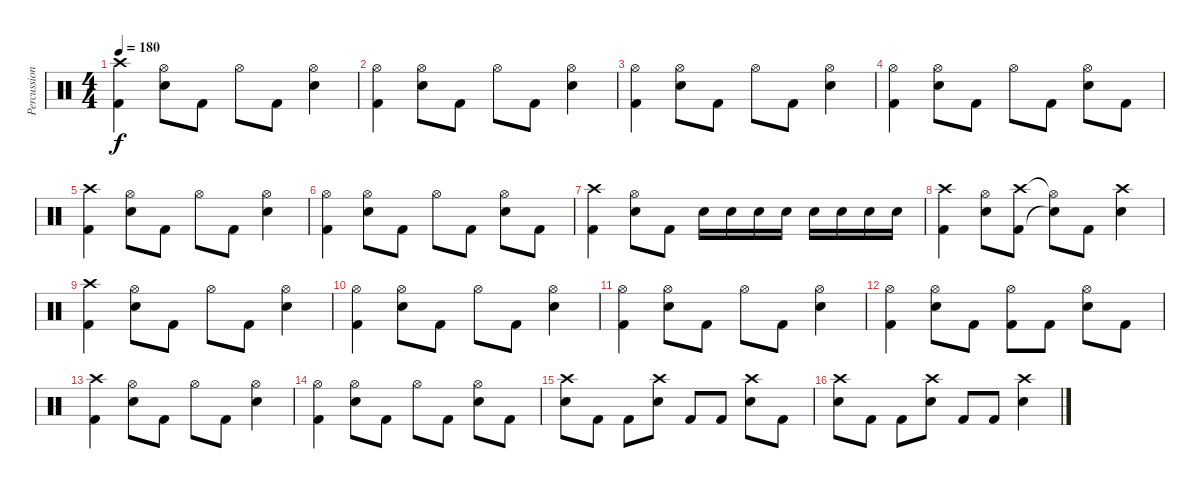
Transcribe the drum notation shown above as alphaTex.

\track ("Percussion" "Percussion") {instrument percussion}
\staff {score}
\articulation defaults
\ts (4 4)
\tempo 180
\clef neutral
\ks c
("Crash high (hit)" "Kick (hit) 2").4{dy f} ("Hi-Hat (open)" "Snare (hit) 2").8 "Kick (hit) 2".8 "Hi-Hat (open)".8 "Kick (hit) 2".8 ("Hi-Hat (open)" "Snare (hit) 2").4 |
("Hi-Hat (open)" "Kick (hit) 2").4 ("Hi-Hat (open)" "Snare (hit) 2").8 "Kick (hit) 2".8 "Hi-Hat (open)".8 "Kick (hit) 2".8 ("Hi-Hat (open)" "Snare (hit) 2").4 |
("Hi-Hat (open)" "Kick (hit) 2").4 ("Hi-Hat (open)" "Snare (hit) 2").8 "Kick (hit) 2".8 "Hi-Hat (open)".8 "Kick (hit) 2".8 ("Hi-Hat (open)" "Snare (hit) 2").4 |
("Hi-Hat (open)" "Kick (hit) 2").4 ("Hi-Hat (open)" "Snare (hit) 2").8 "Kick (hit) 2".8 "Hi-Hat (open)".8 "Kick (hit) 2".8 ("Hi-Hat (open)" "Snare (hit) 2").8 "Kick (hit) 2".8 |
("Crash high (hit)" "Kick (hit) 2").4 ("Hi-Hat (open)" "Snare (hit) 2").8 "Kick (hit) 2".8 "Hi-Hat (open)".8 "Kick (hit) 2".8 ("Hi-Hat (open)" "Snare (hit) 2").4 |
("Hi-Hat (open)" "Kick (hit) 2").4 ("Hi-Hat (open)" "Snare (hit) 2").8 "Kick (hit) 2".8 "Hi-Hat (open)".8 "Kick (hit) 2".8 ("Hi-Hat (open)" "Snare (hit) 2").8 "Kick (hit) 2".8 |
("Crash high (hit)" "Kick (hit) 2").4 ("Hi-Hat (open)" "Snare (hit) 2").8 "Kick (hit) 2".8 "Snare (hit) 2".16 "Snare (hit) 2".16 "Snare (hit) 2".16 "Snare (hit) 2".16 "Snare (hit) 2".16 "Snare (hit) 2".16 "Snare (hit) 2".16 "Snare (hit) 2".16 |
("Crash high (hit)" "Kick (hit) 2").4 ("Hi-Hat (open)" "Snare (hit) 2").8 ("Crash high (hit)" "Kick (hit) 2").8 ("Hi-Hat (open)"{t} "Snare (hit)"{t}).8 "Kick (hit) 2".8 ("Crash high (hit)" "Snare (hit) 2").4 |
("Crash high (hit)" "Kick (hit) 2").4 ("Hi-Hat (open)" "Snare (hit) 2").8 "Kick (hit) 2".8 "Hi-Hat (open)".8 "Kick (hit) 2".8 ("Hi-Hat (open)" "Snare (hit) 2").4 |
("Hi-Hat (open)" "Kick (hit) 2").4 ("Hi-Hat (open)" "Snare (hit) 2").8 "Kick (hit) 2".8 "Hi-Hat (open)".8 "Kick (hit) 2".8 ("Hi-Hat (open)" "Snare (hit) 2").4 |
("Hi-Hat (open)" "Kick (hit) 2").4 ("Hi-Hat (open)" "Snare (hit) 2").8 "Kick (hit) 2".8 "Hi-Hat (open)".8 "Kick (hit) 2".8 ("Hi-Hat (open)" "Snare (hit) 2").4 |
("Hi-Hat (open)" "Kick (hit) 2").4 ("Hi-Hat (open)" "Snare (hit) 2").8 "Kick (hit) 2".8 ("Hi-Hat (open)" "Kick (hit) 2").8 "Kick (hit) 2".8 ("Hi-Hat (open)" "Snare (hit) 2").8 "Kick (hit) 2".8 |
("Crash high (hit)" "Kick (hit) 2").4 ("Hi-Hat (open)" "Snare (hit) 2").8 "Kick (hit) 2".8 "Hi-Hat (open)".8 "Kick (hit) 2".8 ("Hi-Hat (open)" "Snare (hit) 2").4 |
("Hi-Hat (open)" "Kick (hit) 2").4 ("Hi-Hat (open)" "Snare (hit) 2").8 "Kick (hit) 2".8 "Hi-Hat (open)".8 "Kick (hit) 2".8 ("Hi-Hat (open)" "Snare (hit) 2").8 "Kick (hit) 2".8 |
("Crash high (hit)" "Snare (hit) 2").8 "Kick (hit) 2".8 "Kick (hit) 2".8 ("Crash high (hit)" "Snare (hit) 2").8 "Kick (hit) 2".8 "Kick (hit) 2".8 ("Crash high (hit)" "Snare (hit) 2").8 "Kick (hit) 2".8 |
("Crash high (hit)" "Snare (hit) 2").8 "Kick (hit) 2".8 "Kick (hit) 2".8 ("Crash high (hit)" "Snare (hit) 2").8 "Kick (hit) 2".8 "Kick (hit) 2".8 ("Crash high (hit)" "Snare (hit) 2").4
